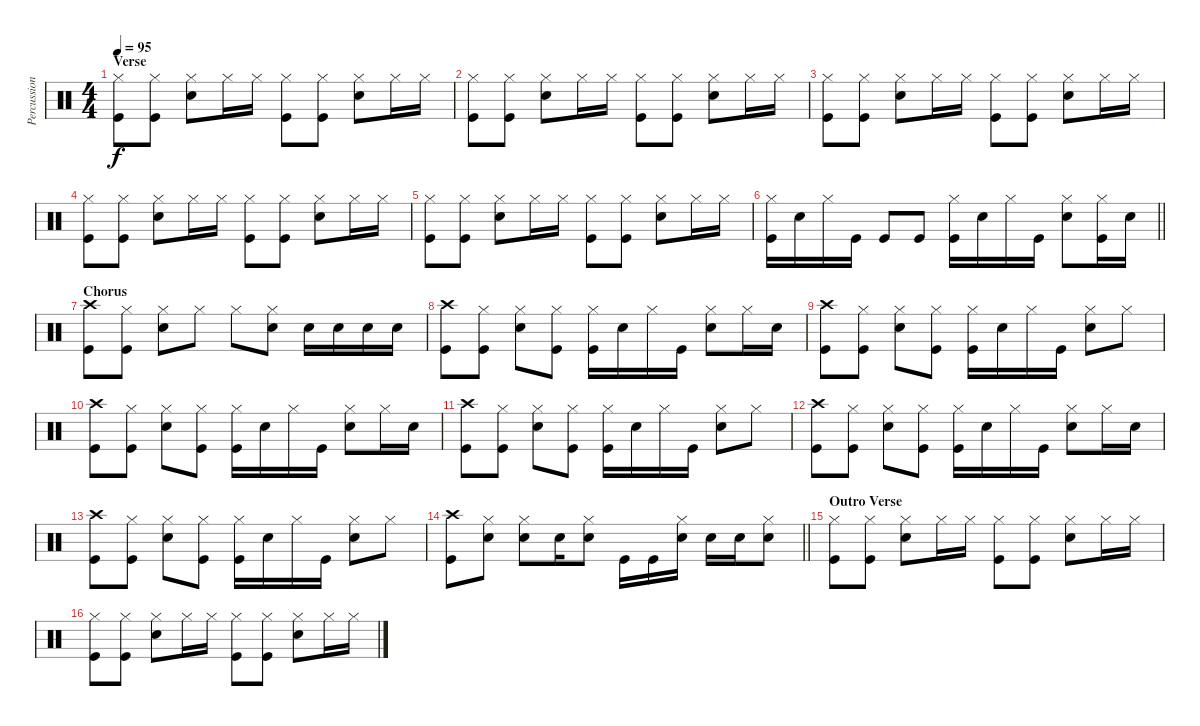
\track ("Percussion" "Percussion") {instrument percussion}
\staff {score}
\articulation defaults
\ts (4 4)
\section ("" "Verse")
\tempo 95
\clef neutral
\ks c
("Hi-Hat (closed)" "Kick (hit)").8{dy f} ("Hi-Hat (closed)" "Kick (hit)").8 ("Hi-Hat (closed)" "Snare (hit) 2").8 "Hi-Hat (closed)".16 "Hi-Hat (closed)".16 ("Hi-Hat (closed)" "Kick (hit)").8 ("Hi-Hat (closed)" "Kick (hit)").8 ("Hi-Hat (closed)" "Snare (hit) 2").8 "Hi-Hat (closed)".16 "Hi-Hat (closed)".16 |
("Hi-Hat (closed)" "Kick (hit)").8 ("Hi-Hat (closed)" "Kick (hit)").8 ("Hi-Hat (closed)" "Snare (hit) 2").8 "Hi-Hat (closed)".16 "Hi-Hat (closed)".16 ("Hi-Hat (closed)" "Kick (hit)").8 ("Hi-Hat (closed)" "Kick (hit)").8 ("Hi-Hat (closed)" "Snare (hit) 2").8 "Hi-Hat (closed)".16 "Hi-Hat (closed)".16 |
("Hi-Hat (closed)" "Kick (hit)").8 ("Hi-Hat (closed)" "Kick (hit)").8 ("Hi-Hat (closed)" "Snare (hit) 2").8 "Hi-Hat (closed)".16 "Hi-Hat (closed)".16 ("Hi-Hat (closed)" "Kick (hit)").8 ("Hi-Hat (closed)" "Kick (hit)").8 ("Hi-Hat (closed)" "Snare (hit) 2").8 "Hi-Hat (closed)".16 "Hi-Hat (closed)".16 |
("Hi-Hat (closed)" "Kick (hit)").8 ("Hi-Hat (closed)" "Kick (hit)").8 ("Hi-Hat (closed)" "Snare (hit) 2").8 "Hi-Hat (closed)".16 "Hi-Hat (closed)".16 ("Hi-Hat (closed)" "Kick (hit)").8 ("Hi-Hat (closed)" "Kick (hit)").8 ("Hi-Hat (closed)" "Snare (hit) 2").8 "Hi-Hat (closed)".16 "Hi-Hat (closed)".16 |
("Hi-Hat (closed)" "Kick (hit)").8 ("Hi-Hat (closed)" "Kick (hit)").8 ("Hi-Hat (closed)" "Snare (hit) 2").8 "Hi-Hat (closed)".16 "Hi-Hat (closed)".16 ("Hi-Hat (closed)" "Kick (hit)").8 ("Hi-Hat (closed)" "Kick (hit)").8 ("Hi-Hat (closed)" "Snare (hit) 2").8 "Hi-Hat (closed)".16 "Hi-Hat (closed)".16 |
\barLineRight lightlight
("Hi-Hat (closed)" "Kick (hit)").16 "Snare (hit) 2".16 "Hi-Hat (closed)".16 "Kick (hit)".16 "Kick (hit)".8 "Kick (hit)".8 ("Hi-Hat (closed)" "Kick (hit)").16 "Snare (hit) 2".16 "Hi-Hat (closed)".16 "Kick (hit)".16 ("Hi-Hat (closed)" "Snare (hit) 2").8 ("Hi-Hat (closed)" "Kick (hit)").16 "Snare (hit) 2".16 |
\section ("" "Chorus")
("Crash high (hit)" "Kick (hit)").8 ("Hi-Hat (closed)" "Kick (hit)").8 ("Hi-Hat (closed)" "Snare (hit) 2").8 "Hi-Hat (closed)".8 "Hi-Hat (closed)".8 ("Hi-Hat (closed)" "Snare (hit) 2").8 "Snare (hit) 2".16 "Snare (hit) 2".16 "Snare (hit) 2".16 "Snare (hit) 2".16 |
("Crash high (hit)" "Kick (hit)").8 ("Hi-Hat (closed)" "Kick (hit)").8 ("Hi-Hat (closed)" "Snare (hit) 2").8 ("Hi-Hat (closed)" "Kick (hit)").8 ("Hi-Hat (closed)" "Kick (hit)").16 "Snare (hit) 2".16 "Hi-Hat (closed)".16 "Kick (hit)".16 ("Hi-Hat (closed)" "Snare (hit) 2").8 "Hi-Hat (closed)".16 "Snare (hit) 2".16 |
("Crash high (hit)" "Kick (hit)").8 ("Hi-Hat (closed)" "Kick (hit)").8 ("Hi-Hat (closed)" "Snare (hit) 2").8 ("Hi-Hat (closed)" "Kick (hit)").8 ("Hi-Hat (closed)" "Kick (hit)").16 "Snare (hit) 2".16 "Hi-Hat (closed)".16 "Kick (hit)".16 ("Hi-Hat (closed)" "Snare (hit) 2").8 "Hi-Hat (closed)".8 |
("Crash high (hit)" "Kick (hit)").8 ("Hi-Hat (closed)" "Kick (hit)").8 ("Hi-Hat (closed)" "Snare (hit) 2").8 ("Hi-Hat (closed)" "Kick (hit)").8 ("Hi-Hat (closed)" "Kick (hit)").16 "Snare (hit) 2".16 "Hi-Hat (closed)".16 "Kick (hit)".16 ("Hi-Hat (closed)" "Snare (hit) 2").8 "Hi-Hat (closed)".16 "Snare (hit) 2".16 |
("Crash high (hit)" "Kick (hit)").8 ("Hi-Hat (closed)" "Kick (hit)").8 ("Hi-Hat (closed)" "Snare (hit) 2").8 ("Hi-Hat (closed)" "Kick (hit)").8 ("Hi-Hat (closed)" "Kick (hit)").16 "Snare (hit) 2".16 "Hi-Hat (closed)".16 "Kick (hit)".16 ("Hi-Hat (closed)" "Snare (hit) 2").8 "Hi-Hat (closed)".8 |
("Crash high (hit)" "Kick (hit)").8 ("Hi-Hat (closed)" "Kick (hit)").8 ("Hi-Hat (closed)" "Snare (hit) 2").8 ("Hi-Hat (closed)" "Kick (hit)").8 ("Hi-Hat (closed)" "Kick (hit)").16 "Snare (hit) 2".16 "Hi-Hat (closed)".16 "Kick (hit)".16 ("Hi-Hat (closed)" "Snare (hit) 2").8 "Hi-Hat (closed)".16 "Snare (hit) 2".16 |
("Crash high (hit)" "Kick (hit)").8 ("Hi-Hat (closed)" "Kick (hit)").8 ("Hi-Hat (closed)" "Snare (hit) 2").8 ("Hi-Hat (closed)" "Kick (hit)").8 ("Hi-Hat (closed)" "Kick (hit)").16 "Snare (hit) 2".16 "Hi-Hat (closed)".16 "Kick (hit)".16 ("Hi-Hat (closed)" "Snare (hit) 2").8 "Hi-Hat (closed)".8 |
\barLineRight lightlight
("Crash high (hit)" "Kick (hit)").8 ("Hi-Hat (closed)" "Snare (hit) 2").8 ("Hi-Hat (closed)" "Snare (hit) 2").8 "Snare (hit) 2".16 ("Hi-Hat (closed)" "Snare (hit) 2").8 "Kick (hit)".16 "Kick (hit)".16 ("Hi-Hat (closed)" "Electric Snare (hit)").16 "Electric Snare (hit)".16 "Snare (hit) 2".16 ("Hi-Hat (closed)" "Electric Snare (hit)").8 |
\section ("" "Outro Verse")
("Hi-Hat (closed)" "Kick (hit)").8 ("Hi-Hat (closed)" "Kick (hit)").8 ("Hi-Hat (closed)" "Snare (hit) 2").8 "Hi-Hat (closed)".16 "Hi-Hat (closed)".16 ("Hi-Hat (closed)" "Kick (hit)").8 ("Hi-Hat (closed)" "Kick (hit)").8 ("Hi-Hat (closed)" "Snare (hit) 2").8 "Hi-Hat (closed)".16 "Hi-Hat (closed)".16 |
("Hi-Hat (closed)" "Kick (hit)").8 ("Hi-Hat (closed)" "Kick (hit)").8 ("Hi-Hat (closed)" "Snare (hit) 2").8 "Hi-Hat (closed)".16 "Hi-Hat (closed)".16 ("Hi-Hat (closed)" "Kick (hit)").8 ("Hi-Hat (closed)" "Kick (hit)").8 ("Hi-Hat (closed)" "Snare (hit) 2").8 "Hi-Hat (closed)".16 "Hi-Hat (closed)".16
